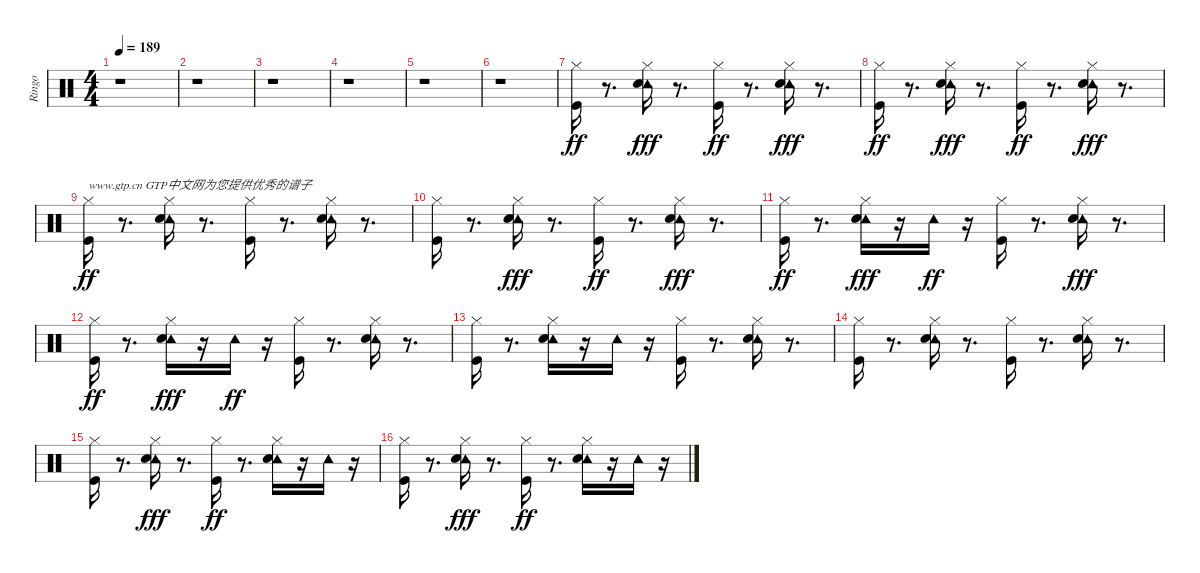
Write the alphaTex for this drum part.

\track ("Ringo" "Ringo") {instrument percussion}
\staff {score}
\articulation defaults
\ts (4 4)
\tempo 189
\clef neutral
\ks c
r.1{dy ff} |
r.1 |
r.1 |
r.1 |
r.1 |
r.1 |
("Hi-Hat (closed)" "Kick (hit)").16 r.8{d} ("Tambourine (hit)" "Hi-Hat (closed)" "Snare (hit) 2").16{dy fff} r.8{d} ("Hi-Hat (closed)" "Kick (hit)").16{dy ff} r.8{d} ("Tambourine (hit)" "Hi-Hat (closed)" "Snare (hit) 2").16{dy fff} r.8{d} |
("Hi-Hat (closed)" "Kick (hit)").16{dy ff} r.8{d} ("Tambourine (hit)" "Hi-Hat (closed)" "Snare (hit) 2").16{dy fff} r.8{d} ("Hi-Hat (closed)" "Kick (hit)").16{dy ff} r.8{d} ("Tambourine (hit)" "Hi-Hat (closed)" "Snare (hit) 2").16{dy fff} r.8{d} |
("Hi-Hat (closed)" "Kick (hit)").16{txt "www.gtp.cn GTP中文网为您提供优秀的谱子" dy ff} r.8{d} ("Hi-Hat (closed)" "Tambourine (hit)" "Snare (hit) 2").16 r.8{d} ("Hi-Hat (closed)" "Kick (hit)").16 r.8{d} ("Hi-Hat (closed)" "Tambourine (hit)" "Snare (hit) 2").16 r.8{d} |
("Hi-Hat (closed)" "Kick (hit)").16 r.8{d} ("Tambourine (hit)" "Hi-Hat (closed)" "Snare (hit) 2").16{dy fff} r.8{d} ("Hi-Hat (closed)" "Kick (hit)").16{dy ff} r.8{d} ("Tambourine (hit)" "Hi-Hat (closed)" "Snare (hit) 2").16{dy fff} r.8{d} |
("Hi-Hat (closed)" "Kick (hit)").16{dy ff} r.8{d} ("Tambourine (hit)" "Hi-Hat (closed)" "Snare (hit) 2").16{dy fff} r.16 "Tambourine (hit)".16{dy ff} r.16 ("Hi-Hat (closed)" "Kick (hit)").16 r.8{d} ("Tambourine (hit)" "Hi-Hat (closed)" "Snare (hit) 2").16{dy fff} r.8{d} |
("Hi-Hat (closed)" "Kick (hit)").16{dy ff} r.8{d} ("Tambourine (hit)" "Hi-Hat (closed)" "Snare (hit) 2").16{dy fff} r.16 "Tambourine (hit)".16{dy ff} r.16 ("Hi-Hat (closed)" "Kick (hit)").16 r.8{d} ("Hi-Hat (closed)" "Tambourine (hit)" "Snare (hit) 2").16 r.8{d} |
("Hi-Hat (closed)" "Kick (hit)").16 r.8{d} ("Hi-Hat (closed)" "Tambourine (hit)" "Snare (hit) 2").16 r.16 "Tambourine (hit)".16 r.16 ("Hi-Hat (closed)" "Kick (hit)").16 r.8{d} ("Hi-Hat (closed)" "Tambourine (hit)" "Snare (hit) 2").16 r.8{d} |
("Hi-Hat (closed)" "Kick (hit)").16 r.8{d} ("Hi-Hat (closed)" "Tambourine (hit)" "Snare (hit) 2").16 r.8{d} ("Hi-Hat (closed)" "Kick (hit)").16 r.8{d} ("Hi-Hat (closed)" "Tambourine (hit)" "Snare (hit) 2").16 r.8{d} |
("Hi-Hat (closed)" "Kick (hit)").16 r.8{d} ("Tambourine (hit)" "Hi-Hat (closed)" "Snare (hit) 2").16{dy fff} r.8{d} ("Hi-Hat (closed)" "Kick (hit)").16{dy ff} r.8{d} ("Hi-Hat (closed)" "Tambourine (hit)" "Snare (hit) 2").16 r.16 "Tambourine (hit)".16 r.16 |
("Hi-Hat (closed)" "Kick (hit)").16 r.8{d} ("Tambourine (hit)" "Hi-Hat (closed)" "Snare (hit) 2").16{dy fff} r.8{d} ("Hi-Hat (closed)" "Kick (hit)").16{dy ff} r.8{d} ("Hi-Hat (closed)" "Tambourine (hit)" "Snare (hit) 2").16 r.16 "Tambourine (hit)".16 r.16
